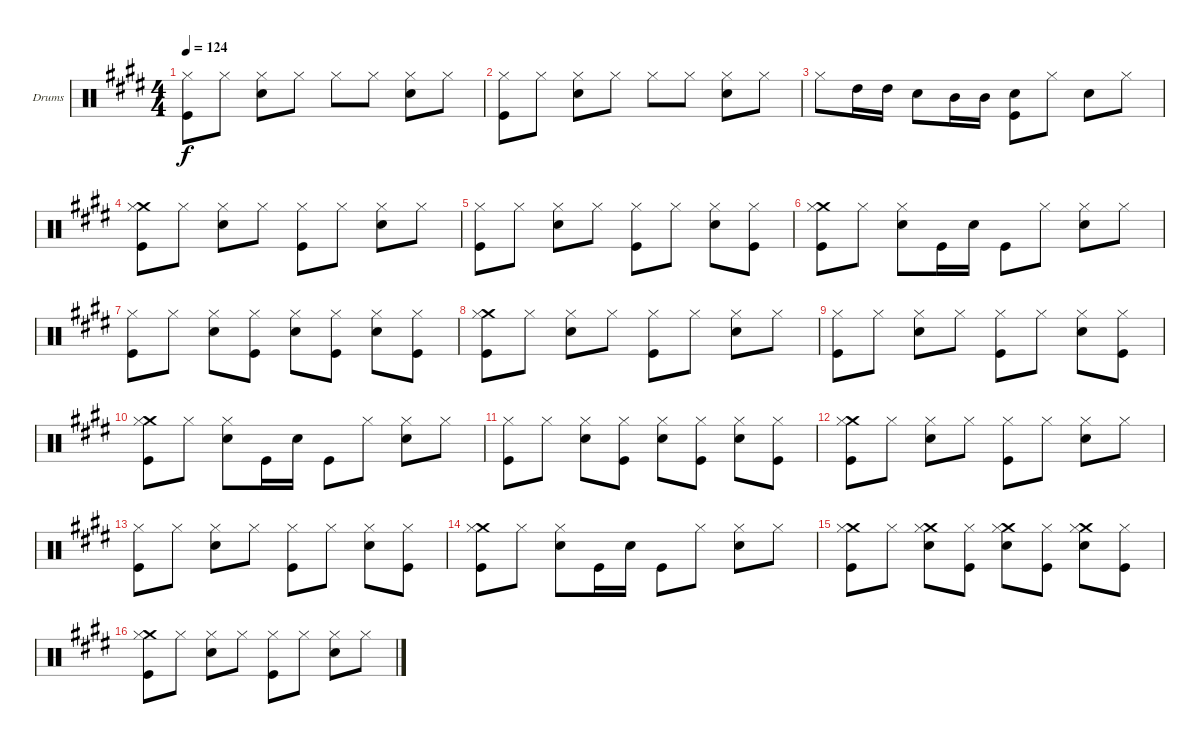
\defaultSystemsLayout 4
\bracketExtendMode groupsimilarinstruments
\firstSystemTrackNameOrientation horizontal
\otherSystemsTrackNameOrientation horizontal
\track ("Drumkit" "Drums") {instrument percussion}
\staff {score}
\articulation defaults
\ts (4 4)
\tempo 124
\clef neutral
\scale
1.06557
\ks e
("Hi-Hat (closed)" "Kick (hit)").8{dy f} "Hi-Hat (closed)".8 ("Hi-Hat (closed)" "Snare (hit) 2").8 "Hi-Hat (closed)".8 "Hi-Hat (closed)".8 "Hi-Hat (closed)".8 ("Hi-Hat (closed)" "Snare (hit) 2").8 "Hi-Hat (closed)".8 |
\scale
0.934426 ("Hi-Hat (closed)" "Kick (hit)").8 "Hi-Hat (closed)".8 ("Hi-Hat (closed)" "Snare (hit) 2").8 "Hi-Hat (closed)".8 "Hi-Hat (closed)".8 "Hi-Hat (closed)".8 ("Hi-Hat (closed)" "Snare (hit) 2").8 "Hi-Hat (closed)".8 |
\scale
1.06557 "Hi-Hat (closed)".8 "High Tom (hit)".16 "High Tom (hit)".16 "Snare (hit) 2".8 "Mid Tom (hit)".16 "Mid Tom (hit)".16 ("Snare (hit) 2" "Kick (hit)").8 "Hi-Hat (closed)".8 "Snare (hit) 2".8 "Hi-Hat (closed)".8 |
\scale
0.934426 ("Crash medium (hit)" "Hi-Hat (closed)" "Kick (hit)").8 "Hi-Hat (closed)".8 ("Hi-Hat (closed)" "Snare (hit) 2").8 "Hi-Hat (closed)".8 ("Hi-Hat (closed)" "Kick (hit)").8 "Hi-Hat (closed)".8 ("Hi-Hat (closed)" "Snare (hit) 2").8 "Hi-Hat (closed)".8 |
\scale
1.06557 ("Hi-Hat (closed)" "Kick (hit)").8 "Hi-Hat (closed)".8 ("Hi-Hat (closed)" "Snare (hit) 2").8 "Hi-Hat (closed)".8 ("Hi-Hat (closed)" "Kick (hit)").8 "Hi-Hat (closed)".8 ("Hi-Hat (closed)" "Snare (hit) 2").8 ("Hi-Hat (closed)" "Kick (hit)").8 |
\scale
0.934426 ("Crash medium (hit)" "Hi-Hat (closed)" "Kick (hit)").8 "Hi-Hat (closed)".8 ("Hi-Hat (closed)" "Snare (hit) 2").8 "Kick (hit)".16 "Snare (hit) 2".16 "Kick (hit)".8 "Hi-Hat (closed)".8 ("Hi-Hat (closed)" "Snare (hit) 2").8 "Hi-Hat (closed)".8 |
\scale
1.06557 ("Hi-Hat (closed)" "Kick (hit)").8 "Hi-Hat (closed)".8 ("Hi-Hat (closed)" "Snare (hit) 2").8 ("Hi-Hat (closed)" "Kick (hit)").8 ("Hi-Hat (closed)" "Snare (hit) 2").8 ("Hi-Hat (closed)" "Kick (hit)").8 ("Hi-Hat (closed)" "Snare (hit) 2").8 ("Hi-Hat (closed)" "Kick (hit)").8 |
\scale
0.934426 ("Crash medium (hit)" "Hi-Hat (closed)" "Kick (hit)").8 "Hi-Hat (closed)".8 ("Hi-Hat (closed)" "Snare (hit) 2").8 "Hi-Hat (closed)".8 ("Hi-Hat (closed)" "Kick (hit)").8 "Hi-Hat (closed)".8 ("Hi-Hat (closed)" "Snare (hit) 2").8 "Hi-Hat (closed)".8 |
\scale
1.06557 ("Hi-Hat (closed)" "Kick (hit)").8 "Hi-Hat (closed)".8 ("Hi-Hat (closed)" "Snare (hit) 2").8 "Hi-Hat (closed)".8 ("Hi-Hat (closed)" "Kick (hit)").8 "Hi-Hat (closed)".8 ("Hi-Hat (closed)" "Snare (hit) 2").8 ("Hi-Hat (closed)" "Kick (hit)").8 |
\scale
0.934426 ("Crash medium (hit)" "Hi-Hat (closed)" "Kick (hit)").8 "Hi-Hat (closed)".8 ("Hi-Hat (closed)" "Snare (hit) 2").8 "Kick (hit)".16 "Snare (hit) 2".16 "Kick (hit)".8 "Hi-Hat (closed)".8 ("Hi-Hat (closed)" "Snare (hit) 2").8 "Hi-Hat (closed)".8 |
\scale
1.06557 ("Hi-Hat (closed)" "Kick (hit)").8 "Hi-Hat (closed)".8 ("Hi-Hat (closed)" "Snare (hit) 2").8 ("Hi-Hat (closed)" "Kick (hit)").8 ("Hi-Hat (closed)" "Snare (hit) 2").8 ("Hi-Hat (closed)" "Kick (hit)").8 ("Hi-Hat (closed)" "Snare (hit) 2").8 ("Hi-Hat (closed)" "Kick (hit)").8 |
\scale
0.934426 ("Crash medium (hit)" "Hi-Hat (closed)" "Kick (hit)").8 "Hi-Hat (closed)".8 ("Hi-Hat (closed)" "Snare (hit) 2").8 "Hi-Hat (closed)".8 ("Hi-Hat (closed)" "Kick (hit)").8 "Hi-Hat (closed)".8 ("Hi-Hat (closed)" "Snare (hit) 2").8 "Hi-Hat (closed)".8 |
\scale
1.06557 ("Hi-Hat (closed)" "Kick (hit)").8 "Hi-Hat (closed)".8 ("Hi-Hat (closed)" "Snare (hit) 2").8 "Hi-Hat (closed)".8 ("Hi-Hat (closed)" "Kick (hit)").8 "Hi-Hat (closed)".8 ("Hi-Hat (closed)" "Snare (hit) 2").8 ("Hi-Hat (closed)" "Kick (hit)").8 |
\scale
0.934426 ("Crash medium (hit)" "Hi-Hat (closed)" "Kick (hit)").8 "Hi-Hat (closed)".8 ("Hi-Hat (closed)" "Snare (hit) 2").8 "Kick (hit)".16 "Snare (hit) 2".16 "Kick (hit)".8 "Hi-Hat (closed)".8 ("Hi-Hat (closed)" "Snare (hit) 2").8 "Hi-Hat (closed)".8 |
\scale
1.06557 ("Crash medium (hit)" "Hi-Hat (closed)" "Kick (hit)").8 "Hi-Hat (closed)".8 ("Crash medium (hit)" "Hi-Hat (closed)" "Snare (hit) 2").8 ("Hi-Hat (closed)" "Kick (hit)").8 ("Crash medium (hit)" "Hi-Hat (closed)" "Snare (hit) 2").8 ("Hi-Hat (closed)" "Kick (hit)").8 ("Crash medium (hit)" "Hi-Hat (closed)" "Snare (hit) 2").8 ("Hi-Hat (closed)" "Kick (hit)").8 |
\scale
0.934426 ("Crash medium (hit)" "Hi-Hat (closed)" "Kick (hit)").8 "Hi-Hat (closed)".8 ("Hi-Hat (closed)" "Snare (hit) 2").8 "Hi-Hat (closed)".8 ("Hi-Hat (closed)" "Kick (hit)").8 "Hi-Hat (closed)".8 ("Hi-Hat (closed)" "Snare (hit) 2").8 "Hi-Hat (closed)".8
